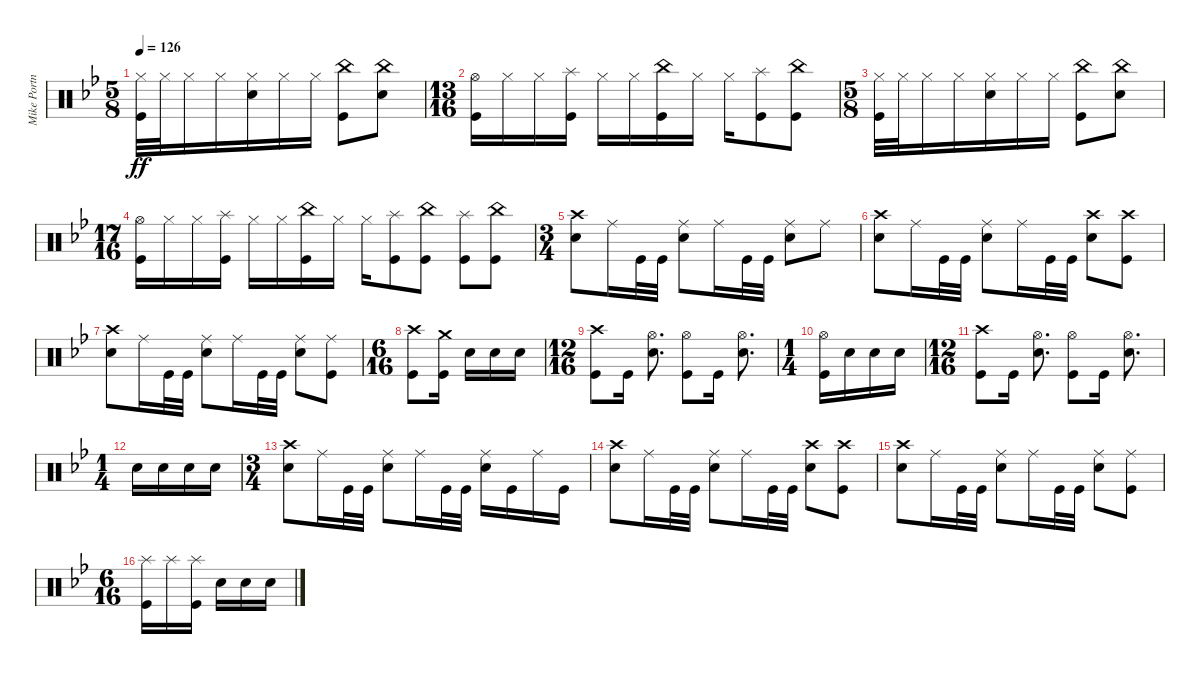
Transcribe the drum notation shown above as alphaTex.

\track ("Mike Portnoy - Drums" "Mike Portn") {instrument percussion}
\staff {score}
\articulation defaults
\ts (5 8)
\tempo 126
\clef neutral
\ks gminor
("Hi-Hat (closed)" "Kick (hit)").32{dy ff} "Hi-Hat (closed)".32 "Hi-Hat (closed)".16 "Hi-Hat (closed)".16 ("Hi-Hat (closed)" "Snare (hit) 2").16 "Hi-Hat (closed)".16 "Hi-Hat (closed)".16 ("China (hit)" "Kick (hit)").8 ("China (hit)" "Snare (hit) 2").8 |
\ts (13 16)
("Hi-Hat (open)" "Kick (hit)").16 "Hi-Hat (closed)".16 "Hi-Hat (closed)".16 ("Splash (hit)" "Kick (hit)").16 "Hi-Hat (closed)".16 "Hi-Hat (closed)".16 ("China (hit)" "Kick (hit)").16 "Hi-Hat (closed)".16 "Hi-Hat (closed)".16 ("Splash (hit)" "Kick (hit)").8 ("China (hit)" "Kick (hit)").8 |
\ts (5 8)
("Hi-Hat (closed)" "Kick (hit)").32 "Hi-Hat (closed)".32 "Hi-Hat (closed)".16 "Hi-Hat (closed)".16 ("Hi-Hat (closed)" "Snare (hit) 2").16 "Hi-Hat (closed)".16 "Hi-Hat (closed)".16 ("China (hit)" "Kick (hit)").8 ("China (hit)" "Snare (hit) 2").8 |
\ts (17 16)
("Hi-Hat (open)" "Kick (hit)").16 "Hi-Hat (closed)".16 "Hi-Hat (closed)".16 ("Splash (hit)" "Kick (hit)").16 "Hi-Hat (closed)".16 "Hi-Hat (closed)".16 ("China (hit)" "Kick (hit)").16 "Hi-Hat (closed)".16 "Hi-Hat (closed)".16 ("Splash (hit)" "Kick (hit)").8 ("China (hit)" "Kick (hit)").8 ("Splash (hit)" "Kick (hit)").8 ("China (hit)" "Kick (hit)").8 |
\ts (3 4)
("Crash high (hit)" "Snare (hit) 2").8 "Ride (middle)".16 "Kick (hit)".32 "Kick (hit)".32 ("Ride (middle)" "Snare (hit) 2").8 "Ride (middle)".16 "Kick (hit)".32 "Kick (hit)".32 ("Ride (middle)" "Snare (hit) 2").8 "Ride (middle)".8 |
("Crash high (hit)" "Snare (hit) 2").8 "Ride (middle)".16 "Kick (hit)".32 "Kick (hit)".32 ("Ride (middle)" "Snare (hit) 2").8 "Ride (middle)".16 "Kick (hit)".32 "Kick (hit)".32 ("Crash high (hit)" "Snare (hit) 2").8 ("Crash high (hit)" "Kick (hit)").8 |
("Crash high (hit)" "Snare (hit) 2").8 "Ride (middle)".16 "Kick (hit)".32 "Kick (hit)".32 ("Ride (middle)" "Snare (hit) 2").8 "Ride (middle)".16 "Kick (hit)".32 "Kick (hit)".32 ("Ride (middle)" "Snare (hit) 2").8 ("Ride (middle)" "Kick (hit)").8 |
\ts (6 16)
("Crash high (hit)" "Kick (hit)").8 ("Crash medium (hit)" "Kick (hit)").16 "Snare (hit) 2".16 "Snare (hit) 2".16 "Snare (hit) 2".16 |
\ts (12 16)
("Crash high (hit)" "Kick (hit)").8 "Kick (hit)".16 ("Hi-Hat (open)" "Snare (hit) 2").8{d} ("Hi-Hat (open)" "Kick (hit)").8 "Kick (hit)".16 ("Hi-Hat (open)" "Snare (hit) 2").8{d} |
\ts (1 4)
("Hi-Hat (open)" "Kick (hit)").16 "Snare (hit) 2".16 "Snare (hit) 2".16 "Snare (hit) 2".16 |
\ts (12 16)
("Crash high (hit)" "Kick (hit)").8 "Kick (hit)".16 ("Hi-Hat (open)" "Snare (hit) 2").8{d} ("Hi-Hat (open)" "Kick (hit)").8 "Kick (hit)".16 ("Hi-Hat (open)" "Snare (hit) 2").8{d} |
\ts (1 4)
"Snare (hit) 2".16 "Snare (hit) 2".16 "Snare (hit) 2".16 "Snare (hit) 2".16 |
\ts (3 4)
("Crash high (hit)" "Snare (hit) 2").8 "Ride (middle)".16 "Kick (hit)".32 "Kick (hit)".32 ("Ride (middle)" "Snare (hit) 2").8 "Ride (middle)".16 "Kick (hit)".32 "Kick (hit)".32 ("Ride (middle)" "Snare (hit) 2").16 "Kick (hit)".16 "Ride (middle)".16 "Kick (hit)".16 |
("Crash high (hit)" "Snare (hit) 2").8 "Ride (middle)".16 "Kick (hit)".32 "Kick (hit)".32 ("Ride (middle)" "Snare (hit) 2").8 "Ride (middle)".16 "Kick (hit)".32 "Kick (hit)".32 ("Crash high (hit)" "Snare (hit) 2").8 ("Crash high (hit)" "Kick (hit)").8 |
("Crash high (hit)" "Snare (hit) 2").8 "Ride (middle)".16 "Kick (hit)".32 "Kick (hit)".32 ("Ride (middle)" "Snare (hit) 2").8 "Ride (middle)".16 "Kick (hit)".32 "Kick (hit)".32 ("Ride (middle)" "Snare (hit) 2").8 ("Ride (middle)" "Kick (hit)").8 |
\ts (6 16)
("Splash (hit)" "Kick (hit)").16 "Splash (hit)".16 ("Splash (hit)" "Kick (hit)").16 "Snare (hit) 2".16 "Snare (hit) 2".16 "Snare (hit) 2".16
